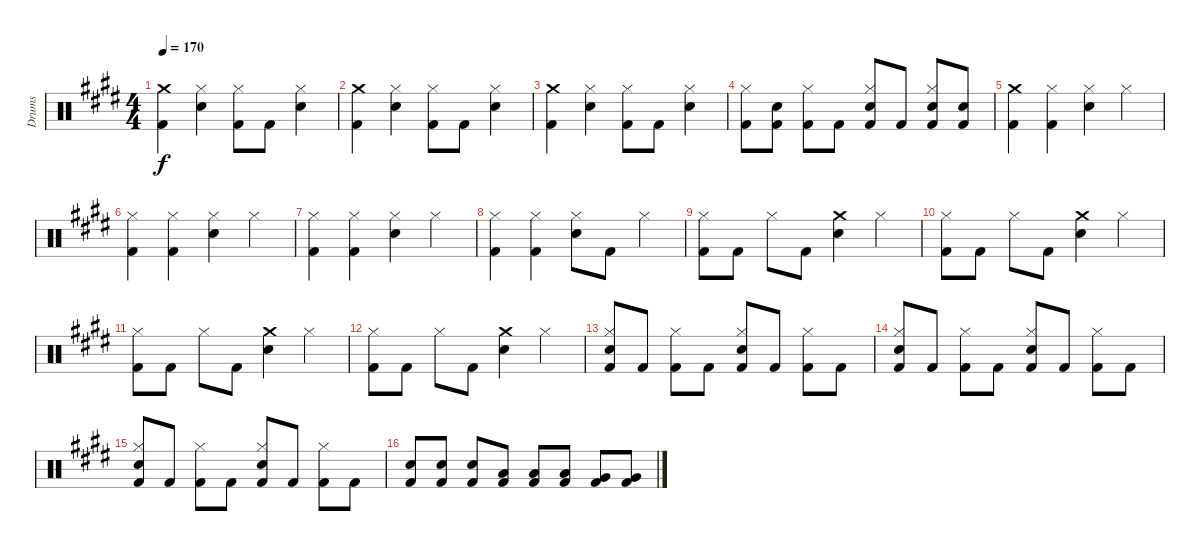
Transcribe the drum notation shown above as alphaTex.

\track ("Drums" "Drums") {instrument percussion}
\staff {score}
\articulation defaults
\ts (4 4)
\tempo 170
\clef neutral
\ks c#minor
("Crash medium (hit)" "Kick (hit) 2").4{dy f} ("Hi-Hat (closed)" "Electric Snare (hit)").4 ("Hi-Hat (closed)" "Kick (hit) 2").8 "Kick (hit) 2".8 ("Hi-Hat (closed)" "Electric Snare (hit)").4 |
("Crash medium (hit)" "Kick (hit) 2").4 ("Hi-Hat (closed)" "Electric Snare (hit)").4 ("Hi-Hat (closed)" "Kick (hit) 2").8 "Kick (hit) 2".8 ("Hi-Hat (closed)" "Electric Snare (hit)").4 |
("Crash medium (hit)" "Kick (hit) 2").4 ("Hi-Hat (closed)" "Electric Snare (hit)").4 ("Hi-Hat (closed)" "Kick (hit) 2").8 "Kick (hit) 2".8 ("Hi-Hat (closed)" "Electric Snare (hit)").4 |
("Hi-Hat (closed)" "Kick (hit) 2").8 ("Electric Snare (hit)" "Kick (hit) 2").8 ("Hi-Hat (closed)" "Kick (hit) 2").8 "Kick (hit) 2".8 ("Hi-Hat (closed)" "Electric Snare (hit)" "Kick (hit) 2").8 "Kick (hit) 2".8 ("Hi-Hat (closed)" "Electric Snare (hit)" "Kick (hit) 2").8 ("Electric Snare (hit)" "Kick (hit) 2").8 |
("Crash medium (hit)" "Kick (hit) 2").4 ("Hi-Hat (closed)" "Kick (hit) 2").4 ("Hi-Hat (closed)" "Electric Snare (hit)").4 "Hi-Hat (closed)".4 |
("Hi-Hat (closed)" "Kick (hit) 2").4 ("Hi-Hat (closed)" "Kick (hit) 2").4 ("Hi-Hat (closed)" "Electric Snare (hit)").4 "Hi-Hat (closed)".4 |
("Hi-Hat (closed)" "Kick (hit) 2").4 ("Hi-Hat (closed)" "Kick (hit) 2").4 ("Hi-Hat (closed)" "Electric Snare (hit)").4 "Hi-Hat (closed)".4 |
("Hi-Hat (closed)" "Kick (hit) 2").4 ("Hi-Hat (closed)" "Kick (hit) 2").4 ("Hi-Hat (closed)" "Electric Snare (hit)").8 "Kick (hit) 2".8 "Hi-Hat (closed)".4 |
("Hi-Hat (closed)" "Kick (hit) 2").8 "Kick (hit) 2".8 "Hi-Hat (closed)".8 "Kick (hit) 2".8 ("Crash medium (hit)" "Electric Snare (hit)").4 "Hi-Hat (closed)".4 |
("Hi-Hat (closed)" "Kick (hit) 2").8 "Kick (hit) 2".8 "Hi-Hat (closed)".8 "Kick (hit) 2".8 ("Crash medium (hit)" "Electric Snare (hit)").4 "Hi-Hat (closed)".4 |
("Hi-Hat (closed)" "Kick (hit) 2").8 "Kick (hit) 2".8 "Hi-Hat (closed)".8 "Kick (hit) 2".8 ("Crash medium (hit)" "Electric Snare (hit)").4 "Hi-Hat (closed)".4 |
("Hi-Hat (closed)" "Kick (hit) 2").8 "Kick (hit) 2".8 "Hi-Hat (closed)".8 "Kick (hit) 2".8 ("Crash medium (hit)" "Electric Snare (hit)").4 "Hi-Hat (closed)".4 |
("Hi-Hat (closed)" "Electric Snare (hit)" "Kick (hit) 2").8 "Kick (hit) 2".8 ("Hi-Hat (closed)" "Kick (hit) 2").8 "Kick (hit) 2".8 ("Hi-Hat (closed)" "Electric Snare (hit)" "Kick (hit) 2").8 "Kick (hit) 2".8 ("Hi-Hat (closed)" "Kick (hit) 2").8 "Kick (hit) 2".8 |
("Hi-Hat (closed)" "Electric Snare (hit)" "Kick (hit) 2").8 "Kick (hit) 2".8 ("Hi-Hat (closed)" "Kick (hit) 2").8 "Kick (hit) 2".8 ("Hi-Hat (closed)" "Electric Snare (hit)" "Kick (hit) 2").8 "Kick (hit) 2".8 ("Hi-Hat (closed)" "Kick (hit) 2").8 "Kick (hit) 2".8 |
("Hi-Hat (closed)" "Electric Snare (hit)" "Kick (hit) 2").8 "Kick (hit) 2".8 ("Hi-Hat (closed)" "Kick (hit) 2").8 "Kick (hit) 2".8 ("Hi-Hat (closed)" "Electric Snare (hit)" "Kick (hit) 2").8 "Kick (hit) 2".8 ("Hi-Hat (closed)" "Kick (hit) 2").8 "Kick (hit) 2".8 |
("Electric Snare (hit)" "Kick (hit) 2").8 ("Electric Snare (hit)" "Kick (hit) 2").8 ("Electric Snare (hit)" "Kick (hit) 2").8 ("Low Tom (hit)" "Kick (hit) 2").8 ("Low Tom (hit)" "Kick (hit) 2").8 ("Low Tom (hit)" "Kick (hit) 2").8 ("Very Low Tom (hit)" "Kick (hit) 2").8 ("Very Low Tom (hit)" "Kick (hit) 2").8
